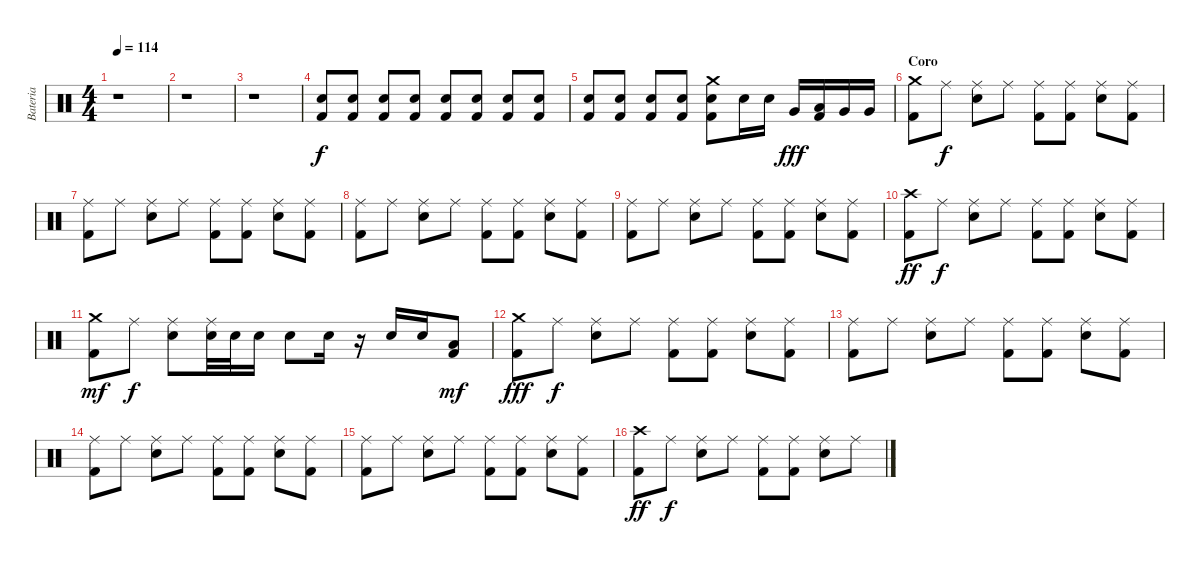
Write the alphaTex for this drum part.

\track ("Bateria" "Bateria") {instrument percussion}
\staff {score}
\articulation defaults
\ts (4 4)
\tempo 114
\clef neutral
\ks c
r.1{dy f} |
r.1 |
r.1 |
("Electric Snare (hit)" "Kick (hit) 2").8{volume 8} ("Electric Snare (hit)" "Kick (hit) 2").8{volume 9} ("Electric Snare (hit)" "Kick (hit) 2").8{volume 13} ("Electric Snare (hit)" "Kick (hit) 2").8 ("Electric Snare (hit)" "Kick (hit) 2").8 ("Electric Snare (hit)" "Kick (hit) 2").8 ("Electric Snare (hit)" "Kick (hit) 2").8 ("Electric Snare (hit)" "Kick (hit) 2").8 |
("Electric Snare (hit)" "Kick (hit) 2").8 ("Electric Snare (hit)" "Kick (hit) 2").8 ("Electric Snare (hit)" "Kick (hit) 2").8 ("Electric Snare (hit)" "Kick (hit) 2").8 ("Crash medium (hit)" "Electric Snare (hit)" "Kick (hit) 2").8 "Electric Snare (hit)".16 "Electric Snare (hit)".16 "Very Low Tom (hit)".16{dy fff} ("Low Tom (hit)" "Kick (hit) 2").16 "Very Low Tom (hit)".16 "Very Low Tom (hit)".16 |
\section ("" "Coro")
("Crash medium (hit)" "Kick (hit) 2").8 "Ride (middle)".8{dy f} ("Ride (middle)" "Electric Snare (hit)").8 "Ride (middle)".8 ("Ride (middle)" "Kick (hit) 2").8 ("Ride (middle)" "Kick (hit) 2").8 ("Ride (middle)" "Electric Snare (hit)").8 ("Ride (middle)" "Kick (hit) 2").8 |
("Ride (middle)" "Kick (hit) 2").8 "Ride (middle)".8 ("Ride (middle)" "Electric Snare (hit)").8 "Ride (middle)".8 ("Ride (middle)" "Kick (hit) 2").8 ("Ride (middle)" "Kick (hit) 2").8 ("Ride (middle)" "Electric Snare (hit)").8 ("Ride (middle)" "Kick (hit) 2").8 |
("Ride (middle)" "Kick (hit) 2").8 "Ride (middle)".8 ("Ride (middle)" "Electric Snare (hit)").8 "Ride (middle)".8 ("Ride (middle)" "Kick (hit) 2").8 ("Ride (middle)" "Kick (hit) 2").8 ("Ride (middle)" "Electric Snare (hit)").8 ("Ride (middle)" "Kick (hit) 2").8 |
("Ride (middle)" "Kick (hit) 2").8 "Ride (middle)".8 ("Ride (middle)" "Electric Snare (hit)").8 "Ride (middle)".8 ("Ride (middle)" "Kick (hit) 2").8 ("Ride (middle)" "Kick (hit) 2").8 ("Ride (middle)" "Electric Snare (hit)").8 ("Ride (middle)" "Kick (hit) 2").8 |
("Crash high (hit)" "Kick (hit) 2").8{dy ff} "Ride (middle)".8{dy f} ("Ride (middle)" "Electric Snare (hit)").8 "Ride (middle)".8 ("Ride (middle)" "Kick (hit) 2").8 ("Ride (middle)" "Kick (hit) 2").8 ("Ride (middle)" "Electric Snare (hit)").8 ("Ride (middle)" "Kick (hit) 2").8 |
("Crash medium (hit)" "Kick (hit) 2").8{dy mf} "Ride (middle)".8{dy f} ("Ride (middle)" "Electric Snare (hit)").8 ("Ride (middle)" "Electric Snare (hit)").32 "Electric Snare (hit)".32 "Electric Snare (hit)".16 "Electric Snare (hit)".8 "Electric Snare (hit)".16 r.16 "Electric Snare (hit)".16 "Electric Snare (hit)".16 ("Low Tom (hit)" "Kick (hit) 2").8{dy mf} |
("Crash medium (hit)" "Kick (hit) 2").8{dy fff} "Ride (middle)".8{dy f} ("Ride (middle)" "Electric Snare (hit)").8 "Ride (middle)".8 ("Ride (middle)" "Kick (hit) 2").8 ("Ride (middle)" "Kick (hit) 2").8 ("Ride (middle)" "Electric Snare (hit)").8 ("Ride (middle)" "Kick (hit) 2").8 |
("Ride (middle)" "Kick (hit) 2").8 "Ride (middle)".8 ("Ride (middle)" "Electric Snare (hit)").8 "Ride (middle)".8 ("Ride (middle)" "Kick (hit) 2").8 ("Ride (middle)" "Kick (hit) 2").8 ("Ride (middle)" "Electric Snare (hit)").8 ("Ride (middle)" "Kick (hit) 2").8 |
("Ride (middle)" "Kick (hit) 2").8 "Ride (middle)".8 ("Ride (middle)" "Electric Snare (hit)").8 "Ride (middle)".8 ("Ride (middle)" "Kick (hit) 2").8 ("Ride (middle)" "Kick (hit) 2").8 ("Ride (middle)" "Electric Snare (hit)").8 ("Ride (middle)" "Kick (hit) 2").8 |
("Ride (middle)" "Kick (hit) 2").8 "Ride (middle)".8 ("Ride (middle)" "Electric Snare (hit)").8 "Ride (middle)".8 ("Ride (middle)" "Kick (hit) 2").8 ("Ride (middle)" "Kick (hit) 2").8 ("Ride (middle)" "Electric Snare (hit)").8 ("Ride (middle)" "Kick (hit) 2").8 |
("Crash high (hit)" "Kick (hit) 2").8{dy ff} "Ride (middle)".8{dy f} ("Ride (middle)" "Electric Snare (hit)").8 "Ride (middle)".8 ("Ride (middle)" "Kick (hit) 2").8 ("Ride (middle)" "Kick (hit) 2").8 ("Ride (middle)" "Electric Snare (hit)").8 "Ride (middle)".8
